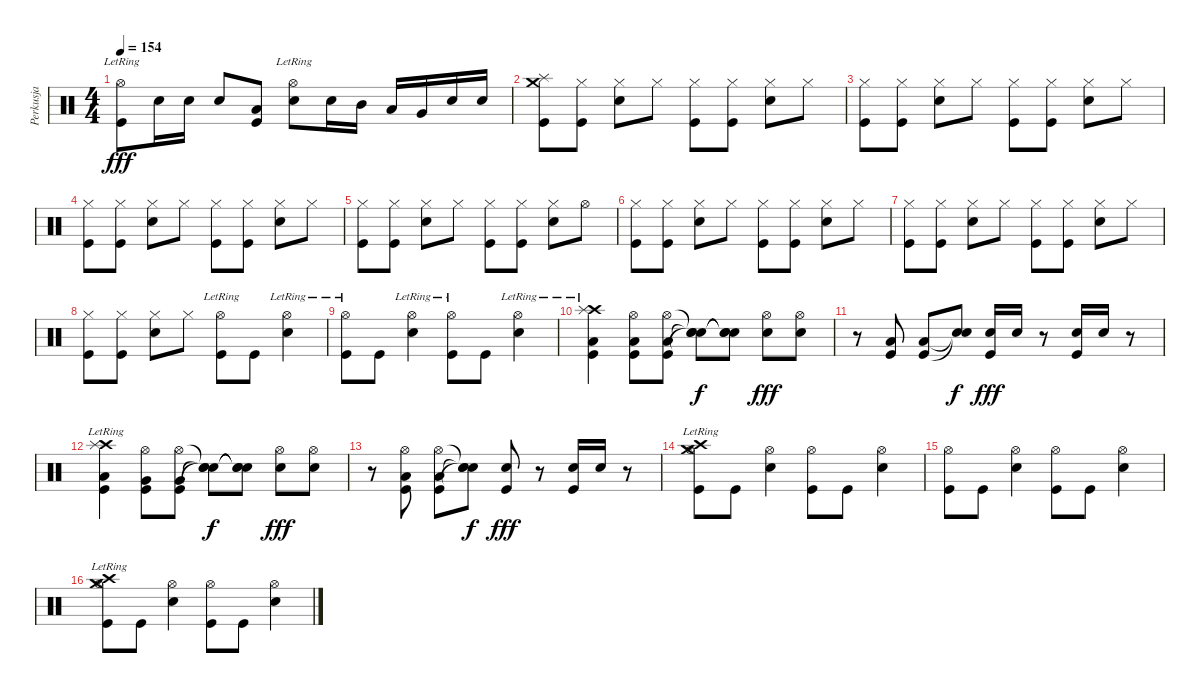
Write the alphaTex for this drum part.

\track ("Perkusja" "Perkusja") {instrument percussion}
\staff {score}
\articulation defaults
\ts (4 4)
\tempo 154
\clef neutral
\ks c
("Hi-Hat (open)"{lr} "Kick (hit)").8{dy fff} "Snare (hit) 2".16 "Snare (hit) 2".16 "Snare (hit) 2".8 ("Low Tom (hit)" "Kick (hit)").8 ("Hi-Hat (open)"{lr} "Snare (hit) 2").8 "Snare (hit) 2".16 "Mid Tom (hit)".16 "Low Tom (hit)".16 "Very Low Tom (hit)".16 "Snare (hit) 2".16 "Snare (hit) 2".16 |
("Splash (hit)" "Crash medium (hit)" "Kick (hit)").8 ("Hi-Hat (closed)" "Kick (hit)").8 ("Hi-Hat (closed)" "Snare (hit) 2").8 "Hi-Hat (closed)".8 ("Hi-Hat (closed)" "Kick (hit)").8 ("Hi-Hat (closed)" "Kick (hit)").8 ("Hi-Hat (closed)" "Snare (hit) 2").8 "Hi-Hat (closed)".8 |
("Hi-Hat (closed)" "Kick (hit)").8 ("Hi-Hat (closed)" "Kick (hit)").8 ("Hi-Hat (closed)" "Snare (hit) 2").8 "Hi-Hat (closed)".8 ("Hi-Hat (closed)" "Kick (hit)").8 ("Hi-Hat (closed)" "Kick (hit)").8 ("Hi-Hat (closed)" "Snare (hit) 2").8 "Hi-Hat (closed)".8 |
("Hi-Hat (closed)" "Kick (hit)").8 ("Hi-Hat (closed)" "Kick (hit)").8 ("Hi-Hat (closed)" "Snare (hit) 2").8 "Hi-Hat (closed)".8 ("Hi-Hat (closed)" "Kick (hit)").8 ("Hi-Hat (closed)" "Kick (hit)").8 ("Hi-Hat (closed)" "Snare (hit) 2").8 "Hi-Hat (closed)".8 |
("Hi-Hat (closed)" "Kick (hit)").8 ("Hi-Hat (closed)" "Kick (hit)").8 ("Hi-Hat (closed)" "Snare (hit) 2").8 "Hi-Hat (closed)".8 ("Hi-Hat (closed)" "Kick (hit)").8 ("Hi-Hat (closed)" "Kick (hit)").8 ("Hi-Hat (closed)" "Snare (hit) 2").8 "Hi-Hat (open)".8 |
("Hi-Hat (closed)" "Kick (hit)").8 ("Hi-Hat (closed)" "Kick (hit)").8 ("Hi-Hat (closed)" "Snare (hit) 2").8 "Hi-Hat (closed)".8 ("Hi-Hat (closed)" "Kick (hit)").8 ("Hi-Hat (closed)" "Kick (hit)").8 ("Hi-Hat (closed)" "Snare (hit) 2").8 "Hi-Hat (closed)".8 |
("Hi-Hat (closed)" "Kick (hit)").8 ("Hi-Hat (closed)" "Kick (hit)").8 ("Hi-Hat (closed)" "Snare (hit) 2").8 "Hi-Hat (closed)".8 ("Hi-Hat (closed)" "Kick (hit)").8 ("Hi-Hat (closed)" "Kick (hit)").8 ("Hi-Hat (closed)" "Snare (hit) 2").8 "Hi-Hat (closed)".8 |
("Hi-Hat (closed)" "Kick (hit)").8 ("Hi-Hat (closed)" "Kick (hit)").8 ("Hi-Hat (closed)" "Snare (hit) 2").8 "Hi-Hat (closed)".8 ("Hi-Hat (open)"{lr} "Kick (hit)").8 "Kick (hit)".8 ("Hi-Hat (open)"{lr} "Snare (hit) 2").4 |
("Hi-Hat (open)"{lr} "Kick (hit)").8 "Kick (hit)".8 ("Hi-Hat (open)"{lr} "Snare (hit) 2").4 ("Hi-Hat (open)"{lr} "Kick (hit)").8 "Kick (hit)".8 ("Hi-Hat (open)"{lr} "Snare (hit) 2").4 |
("Crash high (hit)"{lr} "Splash (hit)"{lr} "Low Tom (hit)"{lr} "Kick (hit)"{lr}).4 ("Hi-Hat (open)" "Low Tom (hit)" "Kick (hit)").8 ("Hi-Hat (open)" "Low Tom (hit)" "Kick (hit)").8 ("Snare (hit)"{t} "Snare (hit)"{t} "Snare (hit)"{t}).8{dy f} ("Snare (hit)"{t} "Snare (hit)"{t} "Snare (hit)"{t}).8 ("Hi-Hat (open)" "Snare (hit) 2").8{dy fff} ("Hi-Hat (open)" "Snare (hit) 2").8 |
r.8 ("Low Tom (hit)" "Kick (hit)").8 ("Low Tom (hit)" "Kick (hit)").8 ("Snare (hit)"{t} "Snare (hit)"{t}).8{dy f} ("Snare (hit) 2" "Kick (hit)").16{dy fff} "Snare (hit) 2".16 r.8 ("Snare (hit) 2" "Kick (hit)").16 "Snare (hit) 2".16 r.8 |
("Crash high (hit)"{lr} "Splash (hit)"{lr} "Low Tom (hit)"{lr} "Kick (hit)"{lr}).4 ("Hi-Hat (open)" "Very Low Tom (hit)" "Kick (hit)").8 ("Hi-Hat (open)" "Very Low Tom (hit)" "Kick (hit)").8 ("Snare (hit)"{t} "Snare (hit)"{t} "Snare (hit)"{t}).8{dy f} ("Snare (hit)"{t} "Snare (hit)"{t} "Snare (hit)"{t}).8 ("Hi-Hat (open)" "Snare (hit) 2").8{dy fff} ("Hi-Hat (open)" "Snare (hit) 2").8 |
r.8 ("Hi-Hat (open)" "Low Tom (hit)" "Kick (hit)").8 ("Hi-Hat (open)" "Low Tom (hit)" "Kick (hit)").8 ("Snare (hit)"{t} "Snare (hit)"{t} "Snare (hit)"{t}).8{dy f} ("Snare (hit) 2" "Kick (hit)").8{dy fff} r.8 ("Snare (hit) 2" "Kick (hit)").16 "Snare (hit) 2".16 r.8 |
("Crash high (hit)"{lr} "Hi-Hat (open)" "Crash medium (hit)"{lr} "Kick (hit)").8 "Kick (hit)".8 ("Hi-Hat (open)" "Snare (hit) 2").4 ("Hi-Hat (open)" "Kick (hit)").8 "Kick (hit)".8 ("Hi-Hat (open)" "Snare (hit) 2").4 |
("Hi-Hat (open)" "Kick (hit)").8 "Kick (hit)".8 ("Hi-Hat (open)" "Snare (hit) 2").4 ("Hi-Hat (open)" "Kick (hit)").8 "Kick (hit)".8 ("Hi-Hat (open)" "Snare (hit) 2").4 |
("Crash high (hit)"{lr} "Hi-Hat (open)" "Crash medium (hit)"{lr} "Kick (hit)").8 "Kick (hit)".8 ("Hi-Hat (open)" "Snare (hit) 2").4 ("Hi-Hat (open)" "Kick (hit)").8 "Kick (hit)".8 ("Hi-Hat (open)" "Snare (hit) 2").4
